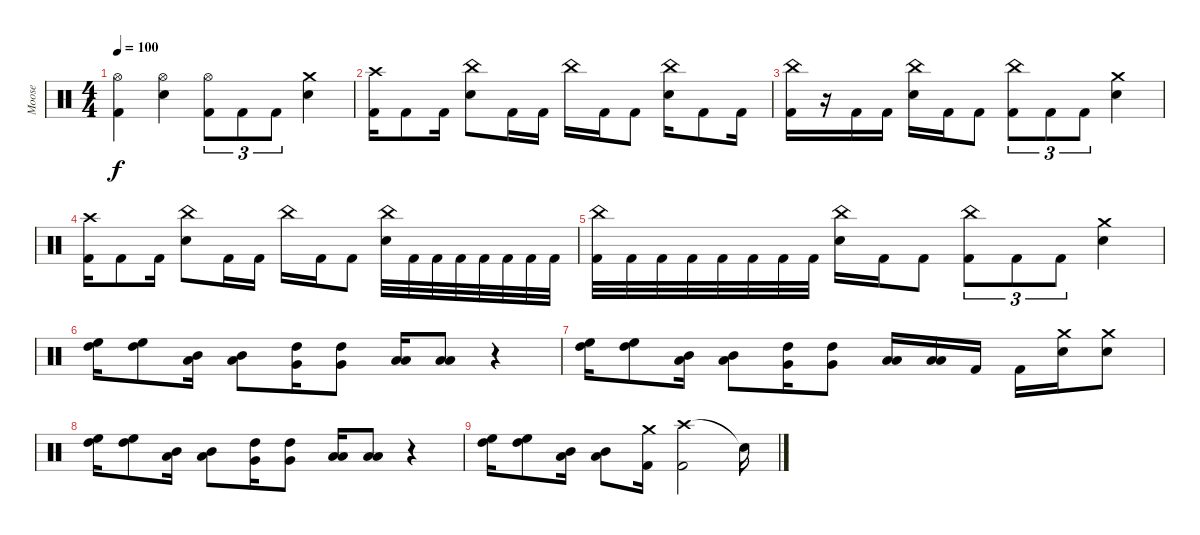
\track ("Moose" "Moose") {instrument percussion}
\staff {score}
\articulation defaults
\ts (4 4)
\tempo 100
\clef neutral
\ks c
("Hi-Hat (open)" "Kick (hit) 2").4{dy f} ("Hi-Hat (open)" "Electric Snare (hit)").4 ("Hi-Hat (open)" "Kick (hit) 2").8{tu (3 2)} "Kick (hit) 2".8{tu (3 2)} "Kick (hit) 2".8{tu (3 2)} ("Crash medium (hit)" "Electric Snare (hit)").4 |
("Crash high (hit)" "Kick (hit) 2").16 "Kick (hit) 2".8 "Kick (hit) 2".16 ("China (hit)" "Electric Snare (hit)").8 "Kick (hit) 2".16 "Kick (hit) 2".16 "China (hit)".16 "Kick (hit) 2".16 "Kick (hit) 2".8 ("China (hit)" "Electric Snare (hit)").16 "Kick (hit) 2".8 "Kick (hit) 2".16 |
("China (hit)" "Kick (hit) 2").16 r.16 "Kick (hit) 2".16 "Kick (hit) 2".16 ("China (hit)" "Electric Snare (hit)").16 "Kick (hit) 2".16 "Kick (hit) 2".8 ("China (hit)" "Kick (hit) 2").8{tu (3 2)} "Kick (hit) 2".8{tu (3 2)} "Kick (hit) 2".8{tu (3 2)} ("Crash medium (hit)" "Electric Snare (hit)").4 |
("Crash high (hit)" "Kick (hit) 2").16 "Kick (hit) 2".8 "Kick (hit) 2".16 ("China (hit)" "Electric Snare (hit)").8 "Kick (hit) 2".16 "Kick (hit) 2".16 "China (hit)".16 "Kick (hit) 2".16 "Kick (hit) 2".8 ("China (hit)" "Electric Snare (hit)").32 "Kick (hit) 2".32 "Kick (hit) 2".32 "Kick (hit) 2".32 "Kick (hit) 2".32 "Kick (hit) 2".32 "Kick (hit) 2".32 "Kick (hit) 2".32 |
("China (hit)" "Kick (hit) 2").32 "Kick (hit) 2".32 "Kick (hit) 2".32 "Kick (hit) 2".32 "Kick (hit) 2".32 "Kick (hit) 2".32 "Kick (hit) 2".32 "Kick (hit) 2".32 ("China (hit)" "Electric Snare (hit)").16 "Kick (hit) 2".16 "Kick (hit) 2".8 ("China (hit)" "Kick (hit) 2").8{tu (3 2)} "Kick (hit) 2".8{tu (3 2)} "Kick (hit) 2".8{tu (3 2)} ("Crash medium (hit)" "Electric Snare (hit)").4 |
("High Floor Tom (hit)" "High Tom (hit)").16 ("High Floor Tom (hit)" "High Tom (hit)").8 ("Mid Tom (hit)" "Low Tom (hit)").16 ("Mid Tom (hit)" "Low Tom (hit)").8 ("High Tom (hit)" "Very Low Tom (hit)").16 ("High Tom (hit)" "Very Low Tom (hit)").8 ("Low Tom (hit)" "Low Floor Tom (hit)").16 ("Low Tom (hit)" "Low Floor Tom (hit)").8 r.4 |
("High Floor Tom (hit)" "High Tom (hit)").16 ("High Floor Tom (hit)" "High Tom (hit)").8 ("Mid Tom (hit)" "Low Tom (hit)").16 ("Mid Tom (hit)" "Low Tom (hit)").8 ("High Tom (hit)" "Very Low Tom (hit)").16 ("High Tom (hit)" "Very Low Tom (hit)").8 ("Low Tom (hit)" "Low Floor Tom (hit)").16 ("Low Tom (hit)" "Low Floor Tom (hit)").16 "Kick (hit) 2".16 "Kick (hit) 2".16 ("Crash medium (hit)" "Electric Snare (hit)").16 ("Crash medium (hit)" "Electric Snare (hit)").8 |
("High Floor Tom (hit)" "High Tom (hit)").16 ("High Floor Tom (hit)" "High Tom (hit)").8 ("Mid Tom (hit)" "Low Tom (hit)").16 ("Mid Tom (hit)" "Low Tom (hit)").8 ("High Tom (hit)" "Very Low Tom (hit)").16 ("High Tom (hit)" "Very Low Tom (hit)").8 ("Low Tom (hit)" "Low Floor Tom (hit)").16 ("Low Tom (hit)" "Low Floor Tom (hit)").8 r.4 |
("High Floor Tom (hit)" "High Tom (hit)").16 ("High Floor Tom (hit)" "High Tom (hit)").8 ("Mid Tom (hit)" "Low Tom (hit)").16 ("Mid Tom (hit)" "Low Tom (hit)").8 ("Crash medium (hit)" "Kick (hit) 2").16 ("Crash high (hit)" "Kick (hit) 2").2 "Snare (hit)"{t}.16
